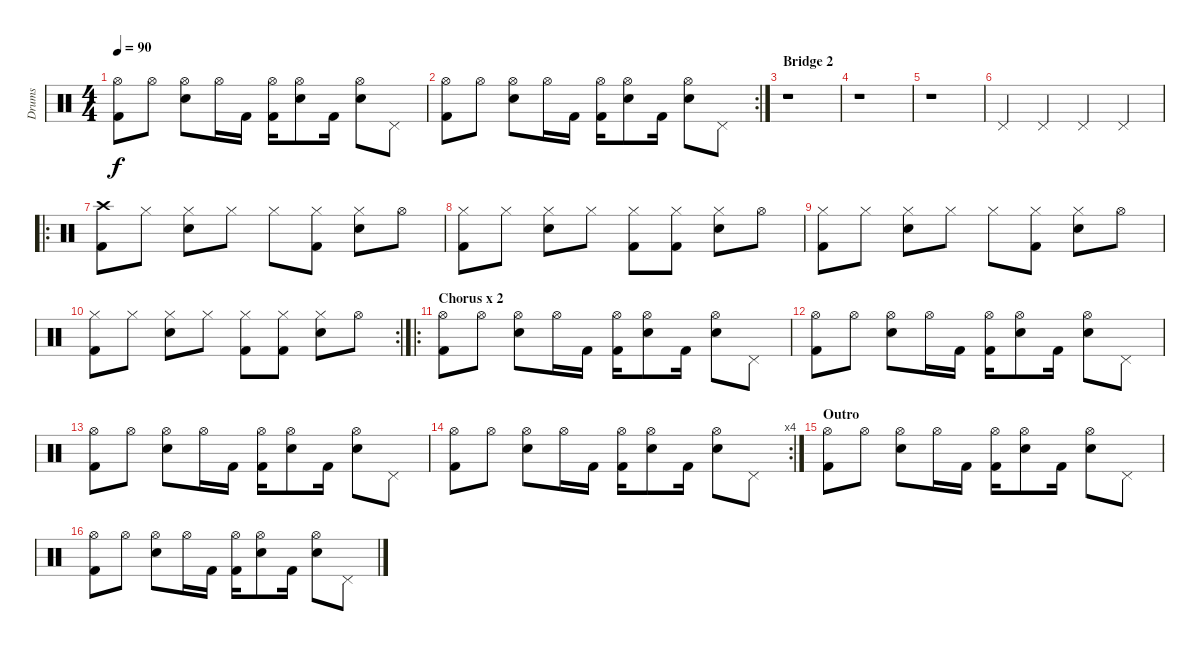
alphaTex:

\track ("Drums" "Drums") {instrument percussion}
\staff {score}
\articulation defaults
\ts (4 4)
\tempo 90
\clef neutral
\ks c
("Kick (hit) 2" "Hi-Hat (open)").8{dy f} "Hi-Hat (open)".8 ("Electric Snare (hit)" "Hi-Hat (open)").8 "Hi-Hat (open)".16 "Kick (hit) 2".16 ("Kick (hit) 2" "Hi-Hat (open)").16 ("Electric Snare (hit)" "Hi-Hat (open)").8 "Kick (hit) 2".16 ("Electric Snare (hit)" "Hi-Hat (open)").8 "Pedal Hi-Hat (hit)".8 |
\rc 2
("Kick (hit) 2" "Hi-Hat (open)").8 "Hi-Hat (open)".8 ("Electric Snare (hit)" "Hi-Hat (open)").8 "Hi-Hat (open)".16 "Kick (hit) 2".16 ("Kick (hit) 2" "Hi-Hat (open)").16 ("Electric Snare (hit)" "Hi-Hat (open)").8 "Kick (hit) 2".16 ("Electric Snare (hit)" "Hi-Hat (open)").8 "Pedal Hi-Hat (hit)".8 |
\section ("" "Bridge 2")
r.1 |
r.1 |
r.1 |
"Pedal Hi-Hat (hit)".4 "Pedal Hi-Hat (hit)".4 "Pedal Hi-Hat (hit)".4 "Pedal Hi-Hat (hit)".4 |
\ro
("Crash high (hit)" "Kick (hit) 2").8 "Hi-Hat (closed)".8 ("Hi-Hat (closed)" "Electric Snare (hit)").8 "Hi-Hat (closed)".8 "Hi-Hat (closed)".8 ("Hi-Hat (closed)" "Kick (hit) 2").8 ("Hi-Hat (closed)" "Electric Snare (hit)").8 "Hi-Hat (open)".8 |
("Hi-Hat (closed)" "Kick (hit) 2").8 "Hi-Hat (closed)".8 ("Hi-Hat (closed)" "Electric Snare (hit)").8 "Hi-Hat (closed)".8 ("Hi-Hat (closed)" "Kick (hit) 2").8 ("Hi-Hat (closed)" "Kick (hit) 2").8 ("Hi-Hat (closed)" "Electric Snare (hit)").8 "Hi-Hat (open)".8 |
("Hi-Hat (closed)" "Kick (hit) 2").8 "Hi-Hat (closed)".8 ("Hi-Hat (closed)" "Electric Snare (hit)").8 "Hi-Hat (closed)".8 "Hi-Hat (closed)".8 ("Hi-Hat (closed)" "Kick (hit) 2").8 ("Hi-Hat (closed)" "Electric Snare (hit)").8 "Hi-Hat (open)".8 |
\rc 2
("Hi-Hat (closed)" "Kick (hit) 2").8 "Hi-Hat (closed)".8 ("Hi-Hat (closed)" "Electric Snare (hit)").8 "Hi-Hat (closed)".8 ("Hi-Hat (closed)" "Kick (hit) 2").8 ("Hi-Hat (closed)" "Kick (hit) 2").8 ("Hi-Hat (closed)" "Electric Snare (hit)").8 "Hi-Hat (open)".8 |
\ro
\section ("" "Chorus x 2")
("Kick (hit) 2" "Hi-Hat (open)").8 "Hi-Hat (open)".8 ("Electric Snare (hit)" "Hi-Hat (open)").8 "Hi-Hat (open)".16 "Kick (hit) 2".16 ("Kick (hit) 2" "Hi-Hat (open)").16 ("Electric Snare (hit)" "Hi-Hat (open)").8 "Kick (hit) 2".16 ("Electric Snare (hit)" "Hi-Hat (open)").8 "Pedal Hi-Hat (hit)".8 |
("Kick (hit) 2" "Hi-Hat (open)").8 "Hi-Hat (open)".8 ("Electric Snare (hit)" "Hi-Hat (open)").8 "Hi-Hat (open)".16 "Kick (hit) 2".16 ("Kick (hit) 2" "Hi-Hat (open)").16 ("Electric Snare (hit)" "Hi-Hat (open)").8 "Kick (hit) 2".16 ("Electric Snare (hit)" "Hi-Hat (open)").8 "Pedal Hi-Hat (hit)".8 |
("Kick (hit) 2" "Hi-Hat (open)").8 "Hi-Hat (open)".8 ("Electric Snare (hit)" "Hi-Hat (open)").8 "Hi-Hat (open)".16 "Kick (hit) 2".16 ("Kick (hit) 2" "Hi-Hat (open)").16 ("Electric Snare (hit)" "Hi-Hat (open)").8 "Kick (hit) 2".16 ("Electric Snare (hit)" "Hi-Hat (open)").8 "Pedal Hi-Hat (hit)".8 |
\rc 4
("Kick (hit) 2" "Hi-Hat (open)").8 "Hi-Hat (open)".8 ("Electric Snare (hit)" "Hi-Hat (open)").8 "Hi-Hat (open)".16 "Kick (hit) 2".16 ("Kick (hit) 2" "Hi-Hat (open)").16 ("Electric Snare (hit)" "Hi-Hat (open)").8 "Kick (hit) 2".16 ("Electric Snare (hit)" "Hi-Hat (open)").8 "Pedal Hi-Hat (hit)".8 |
\section ("" "Outro")
("Kick (hit) 2" "Hi-Hat (open)").8 "Hi-Hat (open)".8 ("Electric Snare (hit)" "Hi-Hat (open)").8 "Hi-Hat (open)".16 "Kick (hit) 2".16 ("Kick (hit) 2" "Hi-Hat (open)").16 ("Electric Snare (hit)" "Hi-Hat (open)").8 "Kick (hit) 2".16 ("Electric Snare (hit)" "Hi-Hat (open)").8 "Pedal Hi-Hat (hit)".8 |
("Kick (hit) 2" "Hi-Hat (open)").8 "Hi-Hat (open)".8 ("Electric Snare (hit)" "Hi-Hat (open)").8 "Hi-Hat (open)".16 "Kick (hit) 2".16 ("Kick (hit) 2" "Hi-Hat (open)").16 ("Electric Snare (hit)" "Hi-Hat (open)").8 "Kick (hit) 2".16 ("Electric Snare (hit)" "Hi-Hat (open)").8 "Pedal Hi-Hat (hit)".8
